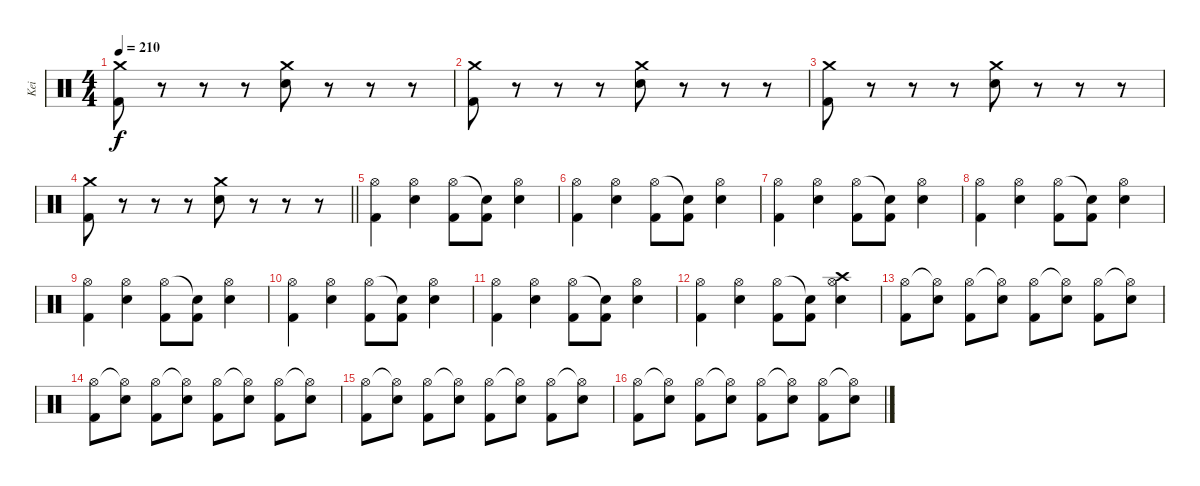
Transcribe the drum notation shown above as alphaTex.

\track ("Kei" "Kei") {instrument percussion}
\staff {score}
\articulation defaults
\ts (4 4)
\tempo 210
\clef neutral
\ks c
("Crash medium (hit)" "Kick (hit) 2").8{dy f} r.8 r.8 r.8 ("Crash medium (hit)" "Electric Snare (hit)").8 r.8 r.8 r.8 |
("Crash medium (hit)" "Kick (hit) 2").8 r.8 r.8 r.8 ("Crash medium (hit)" "Electric Snare (hit)").8 r.8 r.8 r.8 |
("Crash medium (hit)" "Kick (hit) 2").8 r.8 r.8 r.8 ("Crash medium (hit)" "Electric Snare (hit)").8 r.8 r.8 r.8 |
\barLineRight lightlight
("Crash medium (hit)" "Kick (hit) 2").8 r.8 r.8 r.8 ("Crash medium (hit)" "Electric Snare (hit)").8 r.8 r.8 r.8 |
("Hi-Hat (open)" "Kick (hit) 2").4 ("Hi-Hat (open)" "Electric Snare (hit)").4 ("Hi-Hat (open)" "Kick (hit) 2").8 ("Snare (hit)"{t} "Kick (hit) 2").8 ("Hi-Hat (open)" "Electric Snare (hit)").4 |
("Hi-Hat (open)" "Kick (hit) 2").4 ("Hi-Hat (open)" "Electric Snare (hit)").4 ("Hi-Hat (open)" "Kick (hit) 2").8 ("Snare (hit)"{t} "Kick (hit) 2").8 ("Hi-Hat (open)" "Electric Snare (hit)").4 |
("Hi-Hat (open)" "Kick (hit) 2").4 ("Hi-Hat (open)" "Electric Snare (hit)").4 ("Hi-Hat (open)" "Kick (hit) 2").8 ("Snare (hit)"{t} "Kick (hit) 2").8 ("Hi-Hat (open)" "Electric Snare (hit)").4 |
("Hi-Hat (open)" "Kick (hit) 2").4 ("Hi-Hat (open)" "Electric Snare (hit)").4 ("Hi-Hat (open)" "Kick (hit) 2").8 ("Snare (hit)"{t} "Kick (hit) 2").8 ("Hi-Hat (open)" "Electric Snare (hit)").4 |
("Hi-Hat (open)" "Kick (hit) 2").4 ("Hi-Hat (open)" "Electric Snare (hit)").4 ("Hi-Hat (open)" "Kick (hit) 2").8 ("Snare (hit)"{t} "Kick (hit) 2").8 ("Hi-Hat (open)" "Electric Snare (hit)").4 |
("Hi-Hat (open)" "Kick (hit) 2").4 ("Hi-Hat (open)" "Electric Snare (hit)").4 ("Hi-Hat (open)" "Kick (hit) 2").8 ("Snare (hit)"{t} "Kick (hit) 2").8 ("Hi-Hat (open)" "Electric Snare (hit)").4 |
("Hi-Hat (open)" "Kick (hit) 2").4 ("Hi-Hat (open)" "Electric Snare (hit)").4 ("Hi-Hat (open)" "Kick (hit) 2").8 ("Snare (hit)"{t} "Kick (hit) 2").8 ("Hi-Hat (open)" "Electric Snare (hit)").4 |
("Hi-Hat (open)" "Kick (hit) 2").4 ("Hi-Hat (open)" "Electric Snare (hit)").4 ("Hi-Hat (open)" "Kick (hit) 2").8 ("Snare (hit)"{t} "Kick (hit) 2").8 ("Crash high (hit)" "Hi-Hat (open)" "Electric Snare (hit)").4 |
("Hi-Hat (open)" "Kick (hit) 2").8 ("Hi-Hat (open)"{t} "Electric Snare (hit)").8 ("Hi-Hat (open)" "Kick (hit) 2").8 ("Hi-Hat (open)"{t} "Electric Snare (hit)").8 ("Hi-Hat (open)" "Kick (hit) 2").8 ("Hi-Hat (open)"{t} "Electric Snare (hit)").8 ("Hi-Hat (open)" "Kick (hit) 2").8 ("Hi-Hat (open)"{t} "Electric Snare (hit)").8 |
("Hi-Hat (open)" "Kick (hit) 2").8 ("Hi-Hat (open)"{t} "Electric Snare (hit)").8 ("Hi-Hat (open)" "Kick (hit) 2").8 ("Hi-Hat (open)"{t} "Electric Snare (hit)").8 ("Hi-Hat (open)" "Kick (hit) 2").8 ("Hi-Hat (open)"{t} "Electric Snare (hit)").8 ("Hi-Hat (open)" "Kick (hit) 2").8 ("Hi-Hat (open)"{t} "Electric Snare (hit)").8 |
("Hi-Hat (open)" "Kick (hit) 2").8 ("Hi-Hat (open)"{t} "Electric Snare (hit)").8 ("Hi-Hat (open)" "Kick (hit) 2").8 ("Hi-Hat (open)"{t} "Electric Snare (hit)").8 ("Hi-Hat (open)" "Kick (hit) 2").8 ("Hi-Hat (open)"{t} "Electric Snare (hit)").8 ("Hi-Hat (open)" "Kick (hit) 2").8 ("Hi-Hat (open)"{t} "Electric Snare (hit)").8 |
("Hi-Hat (open)" "Kick (hit) 2").8 ("Hi-Hat (open)"{t} "Electric Snare (hit)").8 ("Hi-Hat (open)" "Kick (hit) 2").8 ("Hi-Hat (open)"{t} "Electric Snare (hit)").8 ("Hi-Hat (open)" "Kick (hit) 2").8 ("Hi-Hat (open)"{t} "Electric Snare (hit)").8 ("Hi-Hat (open)" "Kick (hit) 2").8 ("Hi-Hat (open)"{t} "Electric Snare (hit)").8
